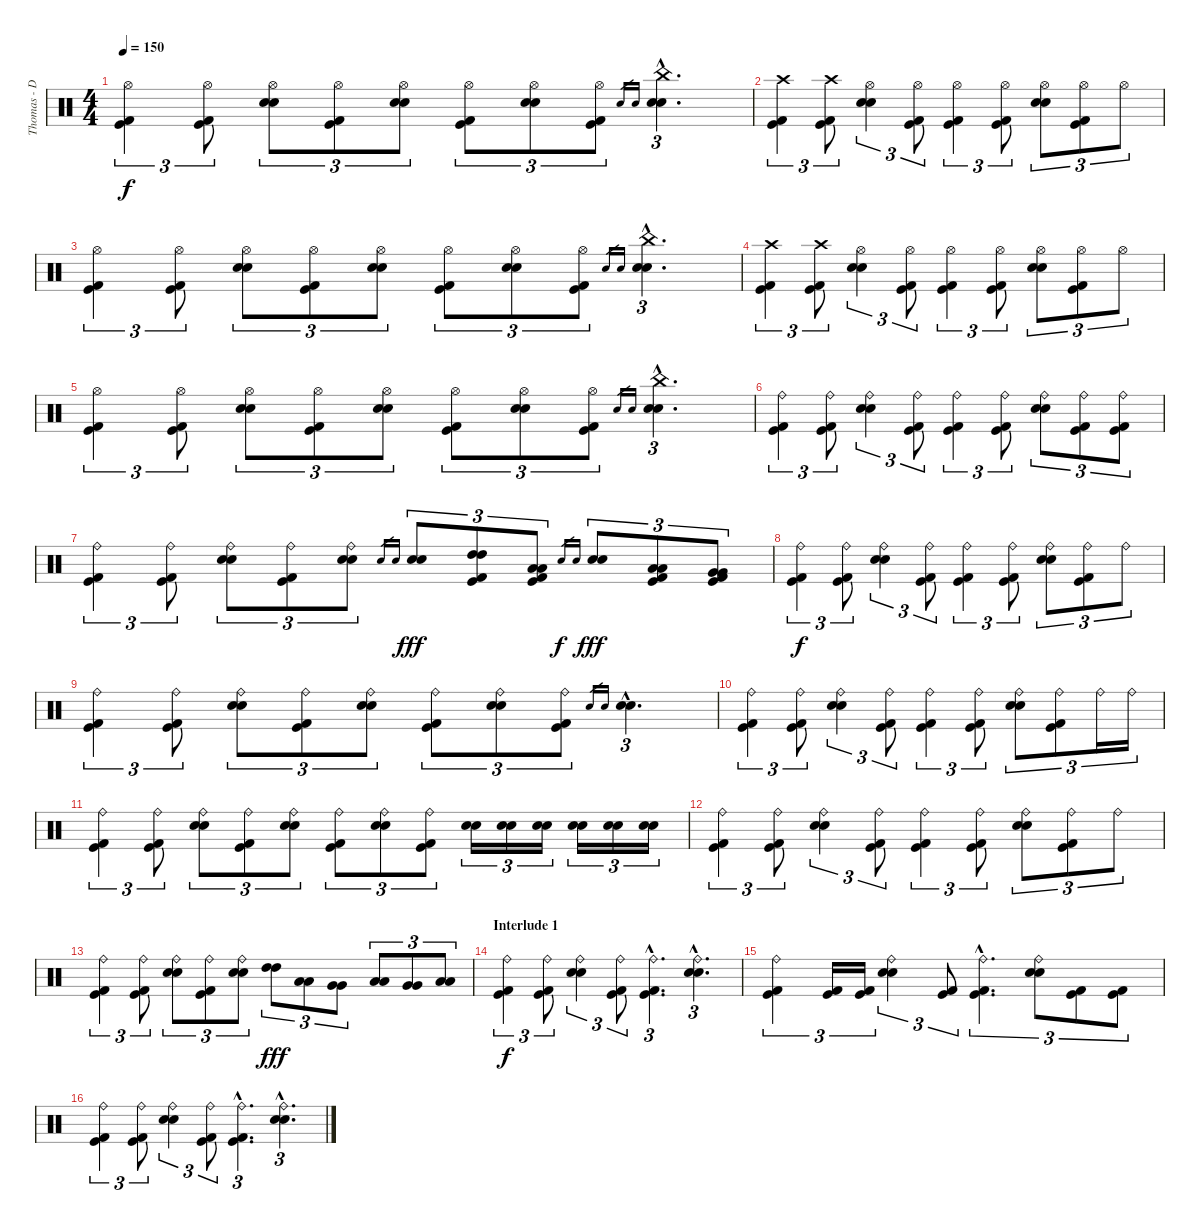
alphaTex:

\track ("Thomas - Drums" "Thomas - D") {instrument percussion}
\staff {score}
\articulation defaults
\ts (4 4)
\tempo 150
\clef neutral
\ks c
("Hi-Hat (open)" "Kick (hit)" "Kick (hit) 2").4{tu (3 2) dy f} ("Hi-Hat (open)" "Kick (hit)" "Kick (hit) 2").8{tu (3 2)} ("Hi-Hat (open)" "Electric Snare (hit)" "Electric Snare (hit)").8{tu (3 2)} ("Hi-Hat (open)" "Kick (hit)" "Kick (hit) 2").8{tu (3 2)} ("Hi-Hat (open)" "Electric Snare (hit)" "Electric Snare (hit)").8{tu (3 2)} ("Hi-Hat (open)" "Kick (hit)" "Kick (hit) 2").8{tu (3 2)} ("Hi-Hat (open)" "Electric Snare (hit)" "Electric Snare (hit)").8{tu (3 2)} ("Hi-Hat (open)" "Kick (hit)" "Kick (hit) 2").8{tu (3 2)} "Electric Snare (hit)".16{gr} "Electric Snare (hit)".16{gr} ("China (hit)"{hac} "Electric Snare (hit)"{hac} "Electric Snare (hit)"{hac}).4{d tu (3 2)} |
("Crash high (hit)" "Kick (hit)" "Kick (hit) 2").4{tu (3 2)} ("Crash high (hit)" "Kick (hit)" "Kick (hit) 2").8{tu (3 2)} ("Hi-Hat (open)" "Electric Snare (hit)" "Electric Snare (hit)").4{tu (3 2)} ("Hi-Hat (open)" "Kick (hit)" "Kick (hit) 2").8{tu (3 2)} ("Hi-Hat (open)" "Kick (hit)" "Kick (hit) 2").4{tu (3 2)} ("Hi-Hat (open)" "Kick (hit)" "Kick (hit) 2").8{tu (3 2)} ("Hi-Hat (open)" "Electric Snare (hit)" "Electric Snare (hit)").8{tu (3 2)} ("Hi-Hat (open)" "Kick (hit)" "Kick (hit) 2").8{tu (3 2)} "Hi-Hat (open)".8{tu (3 2)} |
("Hi-Hat (open)" "Kick (hit)" "Kick (hit) 2").4{tu (3 2)} ("Hi-Hat (open)" "Kick (hit)" "Kick (hit) 2").8{tu (3 2)} ("Hi-Hat (open)" "Electric Snare (hit)" "Electric Snare (hit)").8{tu (3 2)} ("Hi-Hat (open)" "Kick (hit)" "Kick (hit) 2").8{tu (3 2)} ("Hi-Hat (open)" "Electric Snare (hit)" "Electric Snare (hit)").8{tu (3 2)} ("Hi-Hat (open)" "Kick (hit)" "Kick (hit) 2").8{tu (3 2)} ("Hi-Hat (open)" "Electric Snare (hit)" "Electric Snare (hit)").8{tu (3 2)} ("Hi-Hat (open)" "Kick (hit)" "Kick (hit) 2").8{tu (3 2)} "Electric Snare (hit)".16{gr} "Electric Snare (hit)".16{gr} ("China (hit)"{hac} "Electric Snare (hit)"{hac} "Electric Snare (hit)"{hac}).4{d tu (3 2)} |
("Crash high (hit)" "Kick (hit)" "Kick (hit) 2").4{tu (3 2)} ("Crash high (hit)" "Kick (hit)" "Kick (hit) 2").8{tu (3 2)} ("Hi-Hat (open)" "Electric Snare (hit)" "Electric Snare (hit)").4{tu (3 2)} ("Hi-Hat (open)" "Kick (hit)" "Kick (hit) 2").8{tu (3 2)} ("Hi-Hat (open)" "Kick (hit)" "Kick (hit) 2").4{tu (3 2)} ("Hi-Hat (open)" "Kick (hit)" "Kick (hit) 2").8{tu (3 2)} ("Hi-Hat (open)" "Electric Snare (hit)" "Electric Snare (hit)").8{tu (3 2)} ("Hi-Hat (open)" "Kick (hit)" "Kick (hit) 2").8{tu (3 2)} "Hi-Hat (open)".8{tu (3 2)} |
("Hi-Hat (open)" "Kick (hit)" "Kick (hit) 2").4{tu (3 2)} ("Hi-Hat (open)" "Kick (hit)" "Kick (hit) 2").8{tu (3 2)} ("Hi-Hat (open)" "Electric Snare (hit)" "Electric Snare (hit)").8{tu (3 2)} ("Hi-Hat (open)" "Kick (hit)" "Kick (hit) 2").8{tu (3 2)} ("Hi-Hat (open)" "Electric Snare (hit)" "Electric Snare (hit)").8{tu (3 2)} ("Hi-Hat (open)" "Kick (hit)" "Kick (hit) 2").8{tu (3 2)} ("Hi-Hat (open)" "Electric Snare (hit)" "Electric Snare (hit)").8{tu (3 2)} ("Hi-Hat (open)" "Kick (hit)" "Kick (hit) 2").8{tu (3 2)} "Electric Snare (hit)".16{gr} "Electric Snare (hit)".16{gr} ("China (hit)"{hac} "Electric Snare (hit)"{hac} "Electric Snare (hit)"{hac}).4{d tu (3 2)} |
("Ride (bell)" "Kick (hit)" "Kick (hit) 2").4{tu (3 2)} ("Ride (bell)" "Kick (hit)" "Kick (hit) 2").8{tu (3 2)} ("Ride (bell)" "Electric Snare (hit)" "Electric Snare (hit)").4{tu (3 2)} ("Ride (bell)" "Kick (hit)" "Kick (hit) 2").8{tu (3 2)} ("Ride (bell)" "Kick (hit)" "Kick (hit) 2").4{tu (3 2)} ("Ride (bell)" "Kick (hit)" "Kick (hit) 2").8{tu (3 2)} ("Ride (bell)" "Electric Snare (hit)" "Electric Snare (hit)").8{tu (3 2)} ("Ride (bell)" "Kick (hit)" "Kick (hit) 2").8{tu (3 2)} ("Ride (bell)" "Kick (hit)" "Kick (hit) 2").8{tu (3 2)} |
("Ride (bell)" "Kick (hit)" "Kick (hit) 2").4{tu (3 2)} ("Ride (bell)" "Kick (hit)" "Kick (hit) 2").8{tu (3 2)} ("Ride (bell)" "Electric Snare (hit)" "Electric Snare (hit)").8{tu (3 2)} ("Ride (bell)" "Kick (hit)" "Kick (hit) 2").8{tu (3 2)} ("Ride (bell)" "Electric Snare (hit)" "Electric Snare (hit)").8{tu (3 2)} "Electric Snare (hit)".16{gr} "Electric Snare (hit)".16{gr} ("Electric Snare (hit)" "Electric Snare (hit)").8{tu (3 2) dy fff} ("High Tom (hit)" "High Tom (hit)" "Kick (hit)" "Kick (hit) 2").8{tu (3 2)} ("Low Tom (hit)" "Low Tom (hit)" "Kick (hit)" "Kick (hit) 2").8{tu (3 2)} "Electric Snare (hit)".16{gr dy f} "Electric Snare (hit)".16{gr} ("Electric Snare (hit)" "Electric Snare (hit)").8{tu (3 2) dy fff} ("Low Tom (hit)" "Low Tom (hit)" "Kick (hit)" "Kick (hit) 2").8{tu (3 2)} ("Very Low Tom (hit)" "Very Low Tom (hit)" "Kick (hit)" "Kick (hit) 2").8{tu (3 2)} |
("Ride (bell)" "Kick (hit)" "Kick (hit) 2").4{tu (3 2) dy f} ("Ride (bell)" "Kick (hit)" "Kick (hit) 2").8{tu (3 2)} ("Ride (bell)" "Electric Snare (hit)" "Electric Snare (hit)").4{tu (3 2)} ("Ride (bell)" "Kick (hit)" "Kick (hit) 2").8{tu (3 2)} ("Ride (bell)" "Kick (hit)" "Kick (hit) 2").4{tu (3 2)} ("Ride (bell)" "Kick (hit)" "Kick (hit) 2").8{tu (3 2)} ("Ride (bell)" "Electric Snare (hit)" "Electric Snare (hit)").8{tu (3 2)} ("Ride (bell)" "Kick (hit)" "Kick (hit) 2").8{tu (3 2)} "Ride (bell)".8{tu (3 2)} |
("Ride (bell)" "Kick (hit)" "Kick (hit) 2").4{tu (3 2)} ("Ride (bell)" "Kick (hit)" "Kick (hit) 2").8{tu (3 2)} ("Ride (bell)" "Electric Snare (hit)" "Electric Snare (hit)").8{tu (3 2)} ("Ride (bell)" "Kick (hit)" "Kick (hit) 2").8{tu (3 2)} ("Ride (bell)" "Electric Snare (hit)" "Electric Snare (hit)").8{tu (3 2)} ("Ride (bell)" "Kick (hit)" "Kick (hit) 2").8{tu (3 2)} ("Ride (bell)" "Electric Snare (hit)" "Electric Snare (hit)").8{tu (3 2)} ("Ride (bell)" "Kick (hit)" "Kick (hit) 2").8{tu (3 2)} "Electric Snare (hit)".16{gr} "Electric Snare (hit)".16{gr} ("Electric Snare (hit)"{hac} "Electric Snare (hit)"{hac}).4{d tu (3 2)} |
("Ride (bell)" "Kick (hit)" "Kick (hit) 2").4{tu (3 2)} ("Ride (bell)" "Kick (hit)" "Kick (hit) 2").8{tu (3 2)} ("Ride (bell)" "Electric Snare (hit)" "Electric Snare (hit)").4{tu (3 2)} ("Ride (bell)" "Kick (hit)" "Kick (hit) 2").8{tu (3 2)} ("Ride (bell)" "Kick (hit)" "Kick (hit) 2").4{tu (3 2)} ("Ride (bell)" "Kick (hit)" "Kick (hit) 2").8{tu (3 2)} ("Ride (bell)" "Electric Snare (hit)" "Electric Snare (hit)").8{tu (3 2)} ("Ride (bell)" "Kick (hit)" "Kick (hit) 2").8{tu (3 2)} "Ride (bell)".16{tu (3 2)} "Ride (bell)".16{tu (3 2)} |
("Ride (bell)" "Kick (hit)" "Kick (hit) 2").4{tu (3 2)} ("Ride (bell)" "Kick (hit)" "Kick (hit) 2").8{tu (3 2)} ("Ride (bell)" "Electric Snare (hit)" "Electric Snare (hit)").8{tu (3 2)} ("Ride (bell)" "Kick (hit)" "Kick (hit) 2").8{tu (3 2)} ("Ride (bell)" "Electric Snare (hit)" "Electric Snare (hit)").8{tu (3 2)} ("Ride (bell)" "Kick (hit)" "Kick (hit) 2").8{tu (3 2)} ("Ride (bell)" "Electric Snare (hit)" "Electric Snare (hit)").8{tu (3 2)} ("Ride (bell)" "Kick (hit)" "Kick (hit) 2").8{tu (3 2)} ("Electric Snare (hit)" "Electric Snare (hit)").16{tu (3 2)} ("Electric Snare (hit)" "Electric Snare (hit)").16{tu (3 2)} ("Electric Snare (hit)" "Electric Snare (hit)").16{tu (3 2)} ("Electric Snare (hit)" "Electric Snare (hit)").16{tu (3 2)} ("Electric Snare (hit)" "Electric Snare (hit)").16{tu (3 2)} ("Electric Snare (hit)" "Electric Snare (hit)").16{tu (3 2)} |
("Ride (bell)" "Kick (hit)" "Kick (hit) 2").4{tu (3 2)} ("Ride (bell)" "Kick (hit)" "Kick (hit) 2").8{tu (3 2)} ("Ride (bell)" "Electric Snare (hit)" "Electric Snare (hit)").4{tu (3 2)} ("Ride (bell)" "Kick (hit)" "Kick (hit) 2").8{tu (3 2)} ("Ride (bell)" "Kick (hit)" "Kick (hit) 2").4{tu (3 2)} ("Ride (bell)" "Kick (hit)" "Kick (hit) 2").8{tu (3 2)} ("Ride (bell)" "Electric Snare (hit)" "Electric Snare (hit)").8{tu (3 2)} ("Ride (bell)" "Kick (hit)" "Kick (hit) 2").8{tu (3 2)} "Ride (bell)".8{tu (3 2)} |
("Ride (bell)" "Kick (hit)" "Kick (hit) 2").4{tu (3 2)} ("Ride (bell)" "Kick (hit)" "Kick (hit) 2").8{tu (3 2)} ("Ride (bell)" "Electric Snare (hit)" "Electric Snare (hit)").8{tu (3 2)} ("Ride (bell)" "Kick (hit)" "Kick (hit) 2").8{tu (3 2)} ("Ride (bell)" "Electric Snare (hit)" "Electric Snare (hit)").8{tu (3 2)} ("High Tom (hit)" "High Tom (hit)").8{tu (3 2) dy fff} ("Low Tom (hit)" "Low Tom (hit)").8{tu (3 2)} ("Very Low Tom (hit)" "Very Low Tom (hit)").8{tu (3 2)} ("Low Tom (hit)" "Low Tom (hit)").8{tu (3 2)} ("Very Low Tom (hit)" "Very Low Tom (hit)").8{tu (3 2)} ("Low Floor Tom (hit)" "Low Floor Tom (hit)").8{tu (3 2)} |
\section ("" "Interlude 1")
("Ride (bell)" "Kick (hit)" "Kick (hit) 2").4{tu (3 2) dy f} ("Ride (bell)" "Kick (hit)" "Kick (hit) 2").8{tu (3 2)} ("Ride (bell)" "Electric Snare (hit)" "Electric Snare (hit)").4{tu (3 2)} ("Ride (bell)" "Kick (hit)" "Kick (hit) 2").8{tu (3 2)} ("Ride (bell)"{hac} "Kick (hit)"{hac} "Kick (hit) 2"{hac}).4{d tu (3 2)} ("Ride (bell)"{hac} "Electric Snare (hit)"{hac} "Electric Snare (hit)"{hac}).4{d tu (3 2)} |
("Ride (bell)" "Kick (hit)" "Kick (hit) 2").4{tu (3 2)} ("Kick (hit)" "Kick (hit) 2").16{tu (3 2)} ("Kick (hit)" "Kick (hit) 2").16{tu (3 2)} ("Ride (bell)" "Electric Snare (hit)" "Electric Snare (hit)").4{tu (3 2)} ("Kick (hit)" "Kick (hit) 2").8{tu (3 2)} ("Ride (bell)"{hac} "Kick (hit)"{hac} "Kick (hit) 2"{hac}).4{d tu (3 2)} ("Ride (bell)" "Electric Snare (hit)" "Electric Snare (hit)").8{tu (3 2)} ("Kick (hit)" "Kick (hit) 2").8{tu (3 2)} ("Kick (hit)" "Kick (hit) 2").8{tu (3 2)} |
("Ride (bell)" "Kick (hit)" "Kick (hit) 2").4{tu (3 2)} ("Ride (bell)" "Kick (hit)" "Kick (hit) 2").8{tu (3 2)} ("Ride (bell)" "Electric Snare (hit)" "Electric Snare (hit)").4{tu (3 2)} ("Ride (bell)" "Kick (hit)" "Kick (hit) 2").8{tu (3 2)} ("Ride (bell)"{hac} "Kick (hit)"{hac} "Kick (hit) 2"{hac}).4{d tu (3 2)} ("Ride (bell)"{hac} "Electric Snare (hit)"{hac} "Electric Snare (hit)"{hac}).4{d tu (3 2)}
